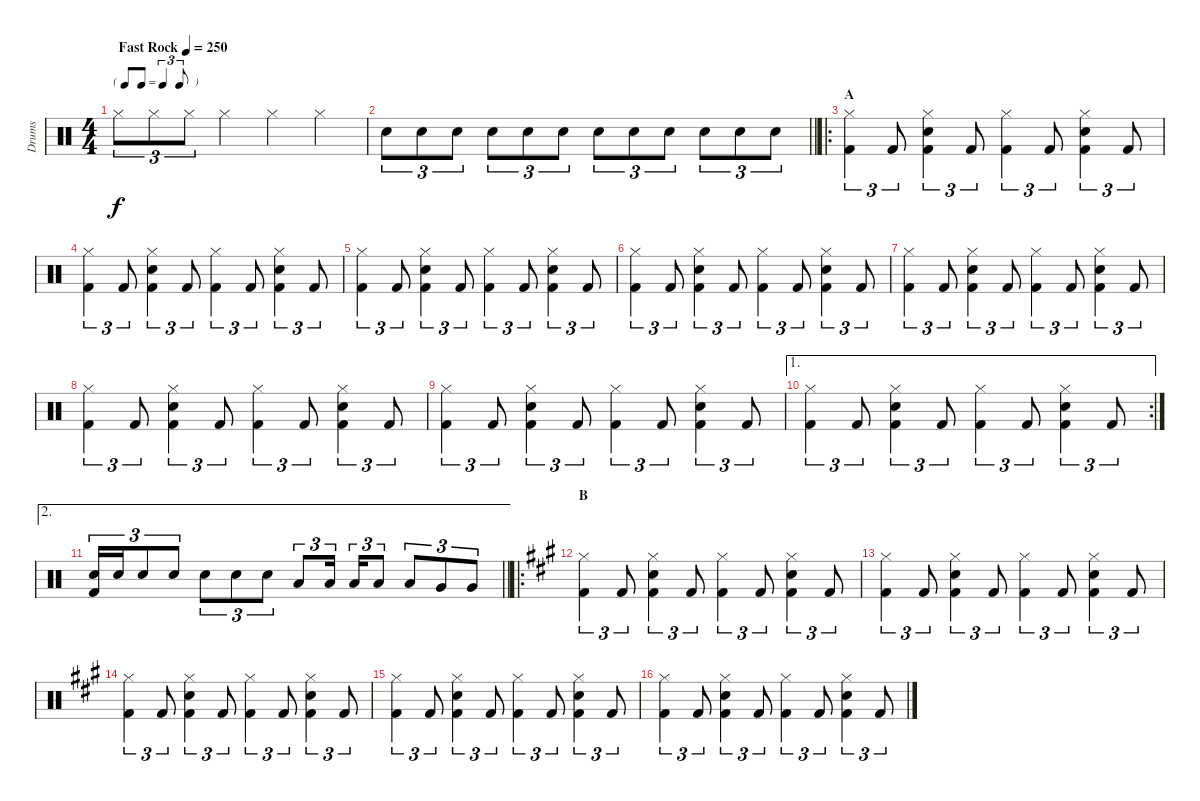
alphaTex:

\track ("Drums" "Drums") {instrument percussion}
\staff {score}
\articulation defaults
\ts (4 4)
\tf triplet8th
\tempo (250 "Fast Rock")
\clef neutral
\ks aminor "Hi-Hat (closed)".8{tu (3 2) dy f} "Hi-Hat (closed)".8{tu (3 2)} "Hi-Hat (closed)".8{tu (3 2)} "Hi-Hat (closed)".4 "Hi-Hat (closed)".4 "Hi-Hat (closed)".4
|
\barLineRight lightlight "Electric Snare (hit)".8{tu (3 2)} "Electric Snare (hit)".8{tu (3 2)} "Electric Snare (hit)".8{tu (3 2)} "Electric Snare (hit)".8{tu (3 2)} "Electric Snare (hit)".8{tu (3 2)} "Electric Snare (hit)".8{tu (3 2)} "Electric Snare (hit)".8{tu (3 2)} "Electric Snare (hit)".8{tu (3 2)} "Electric Snare (hit)".8{tu (3 2)} "Electric Snare (hit)".8{tu (3 2)} "Electric Snare (hit)".8{tu (3 2)} "Electric Snare (hit)".8{tu (3 2)}
|
\ro
\section ("" "A")
("Hi-Hat (closed)" "Kick (hit) 2").4{tu (3 2)} "Kick (hit) 2".8{tu (3 2)} ("Hi-Hat (closed)" "Electric Snare (hit)" "Kick (hit) 2").4{tu (3 2)} "Kick (hit) 2".8{tu (3 2)} ("Hi-Hat (closed)" "Kick (hit) 2").4{tu (3 2)} "Kick (hit) 2".8{tu (3 2)} ("Hi-Hat (closed)" "Electric Snare (hit)" "Kick (hit) 2").4{tu (3 2)} "Kick (hit) 2".8{tu (3 2)} |
("Hi-Hat (closed)" "Kick (hit) 2").4{tu (3 2)} "Kick (hit) 2".8{tu (3 2)} ("Hi-Hat (closed)" "Electric Snare (hit)" "Kick (hit) 2").4{tu (3 2)} "Kick (hit) 2".8{tu (3 2)} ("Hi-Hat (closed)" "Kick (hit) 2").4{tu (3 2)} "Kick (hit) 2".8{tu (3 2)} ("Hi-Hat (closed)" "Electric Snare (hit)" "Kick (hit) 2").4{tu (3 2)} "Kick (hit) 2".8{tu (3 2)} |
("Hi-Hat (closed)" "Kick (hit) 2").4{tu (3 2)} "Kick (hit) 2".8{tu (3 2)} ("Hi-Hat (closed)" "Electric Snare (hit)" "Kick (hit) 2").4{tu (3 2)} "Kick (hit) 2".8{tu (3 2)} ("Hi-Hat (closed)" "Kick (hit) 2").4{tu (3 2)} "Kick (hit) 2".8{tu (3 2)} ("Hi-Hat (closed)" "Electric Snare (hit)" "Kick (hit) 2").4{tu (3 2)} "Kick (hit) 2".8{tu (3 2)} |
("Hi-Hat (closed)" "Kick (hit) 2").4{tu (3 2)} "Kick (hit) 2".8{tu (3 2)} ("Hi-Hat (closed)" "Electric Snare (hit)" "Kick (hit) 2").4{tu (3 2)} "Kick (hit) 2".8{tu (3 2)} ("Hi-Hat (closed)" "Kick (hit) 2").4{tu (3 2)} "Kick (hit) 2".8{tu (3 2)} ("Hi-Hat (closed)" "Electric Snare (hit)" "Kick (hit) 2").4{tu (3 2)} "Kick (hit) 2".8{tu (3 2)} |
("Hi-Hat (closed)" "Kick (hit) 2").4{tu (3 2)} "Kick (hit) 2".8{tu (3 2)} ("Hi-Hat (closed)" "Electric Snare (hit)" "Kick (hit) 2").4{tu (3 2)} "Kick (hit) 2".8{tu (3 2)} ("Hi-Hat (closed)" "Kick (hit) 2").4{tu (3 2)} "Kick (hit) 2".8{tu (3 2)} ("Hi-Hat (closed)" "Electric Snare (hit)" "Kick (hit) 2").4{tu (3 2)} "Kick (hit) 2".8{tu (3 2)} |
("Hi-Hat (closed)" "Kick (hit) 2").4{tu (3 2)} "Kick (hit) 2".8{tu (3 2)} ("Hi-Hat (closed)" "Electric Snare (hit)" "Kick (hit) 2").4{tu (3 2)} "Kick (hit) 2".8{tu (3 2)} ("Hi-Hat (closed)" "Kick (hit) 2").4{tu (3 2)} "Kick (hit) 2".8{tu (3 2)} ("Hi-Hat (closed)" "Electric Snare (hit)" "Kick (hit) 2").4{tu (3 2)} "Kick (hit) 2".8{tu (3 2)} |
("Hi-Hat (closed)" "Kick (hit) 2").4{tu (3 2)} "Kick (hit) 2".8{tu (3 2)} ("Hi-Hat (closed)" "Electric Snare (hit)" "Kick (hit) 2").4{tu (3 2)} "Kick (hit) 2".8{tu (3 2)} ("Hi-Hat (closed)" "Kick (hit) 2").4{tu (3 2)} "Kick (hit) 2".8{tu (3 2)} ("Hi-Hat (closed)" "Electric Snare (hit)" "Kick (hit) 2").4{tu (3 2)} "Kick (hit) 2".8{tu (3 2)} |
\ae 1
\rc 2
("Hi-Hat (closed)" "Kick (hit) 2").4{tu (3 2)} "Kick (hit) 2".8{tu (3 2)} ("Hi-Hat (closed)" "Electric Snare (hit)" "Kick (hit) 2").4{tu (3 2)} "Kick (hit) 2".8{tu (3 2)} ("Hi-Hat (closed)" "Kick (hit) 2").4{tu (3 2)} "Kick (hit) 2".8{tu (3 2)} ("Hi-Hat (closed)" "Electric Snare (hit)" "Kick (hit) 2").4{tu (3 2)} "Kick (hit) 2".8{tu (3 2)} |
\ae 2
\barLineRight lightlight
("Electric Snare (hit)" "Kick (hit) 2").16{tu (3 2)} "Electric Snare (hit)".16{tu (3 2)} "Electric Snare (hit)".8{tu (3 2)} "Electric Snare (hit)".8{tu (3 2)} "Electric Snare (hit)".8{tu (3 2)} "Electric Snare (hit)".8{tu (3 2)} "Electric Snare (hit)".8{tu (3 2)} "Low Tom (hit)".8{tu (3 2)} "Low Tom (hit)".16{tu (3 2)} "Low Tom (hit)".16{tu (3 2)} "Low Tom (hit)".8{tu (3 2)} "Low Tom (hit)".8{tu (3 2)} "Very Low Tom (hit)".8{tu (3 2)} "Very Low Tom (hit)".8{tu (3 2)} |
\ro
\section ("" "B")
\ks f#minor
("Hi-Hat (closed)" "Kick (hit) 2").4{tu (3 2)} "Kick (hit) 2".8{tu (3 2)} ("Hi-Hat (closed)" "Electric Snare (hit)" "Kick (hit) 2").4{tu (3 2)} "Kick (hit) 2".8{tu (3 2)} ("Hi-Hat (closed)" "Kick (hit) 2").4{tu (3 2)} "Kick (hit) 2".8{tu (3 2)} ("Hi-Hat (closed)" "Electric Snare (hit)" "Kick (hit) 2").4{tu (3 2)} "Kick (hit) 2".8{tu (3 2)} |
("Hi-Hat (closed)" "Kick (hit) 2").4{tu (3 2)} "Kick (hit) 2".8{tu (3 2)} ("Hi-Hat (closed)" "Electric Snare (hit)" "Kick (hit) 2").4{tu (3 2)} "Kick (hit) 2".8{tu (3 2)} ("Hi-Hat (closed)" "Kick (hit) 2").4{tu (3 2)} "Kick (hit) 2".8{tu (3 2)} ("Hi-Hat (closed)" "Electric Snare (hit)" "Kick (hit) 2").4{tu (3 2)} "Kick (hit) 2".8{tu (3 2)} |
("Hi-Hat (closed)" "Kick (hit) 2").4{tu (3 2)} "Kick (hit) 2".8{tu (3 2)} ("Hi-Hat (closed)" "Electric Snare (hit)" "Kick (hit) 2").4{tu (3 2)} "Kick (hit) 2".8{tu (3 2)} ("Hi-Hat (closed)" "Kick (hit) 2").4{tu (3 2)} "Kick (hit) 2".8{tu (3 2)} ("Hi-Hat (closed)" "Electric Snare (hit)" "Kick (hit) 2").4{tu (3 2)} "Kick (hit) 2".8{tu (3 2)} |
("Hi-Hat (closed)" "Kick (hit) 2").4{tu (3 2)} "Kick (hit) 2".8{tu (3 2)} ("Hi-Hat (closed)" "Electric Snare (hit)" "Kick (hit) 2").4{tu (3 2)} "Kick (hit) 2".8{tu (3 2)} ("Hi-Hat (closed)" "Kick (hit) 2").4{tu (3 2)} "Kick (hit) 2".8{tu (3 2)} ("Hi-Hat (closed)" "Electric Snare (hit)" "Kick (hit) 2").4{tu (3 2)} "Kick (hit) 2".8{tu (3 2)} |
("Hi-Hat (closed)" "Kick (hit) 2").4{tu (3 2)} "Kick (hit) 2".8{tu (3 2)} ("Hi-Hat (closed)" "Electric Snare (hit)" "Kick (hit) 2").4{tu (3 2)} "Kick (hit) 2".8{tu (3 2)} ("Hi-Hat (closed)" "Kick (hit) 2").4{tu (3 2)} "Kick (hit) 2".8{tu (3 2)} ("Hi-Hat (closed)" "Electric Snare (hit)" "Kick (hit) 2").4{tu (3 2)} "Kick (hit) 2".8{tu (3 2)}
